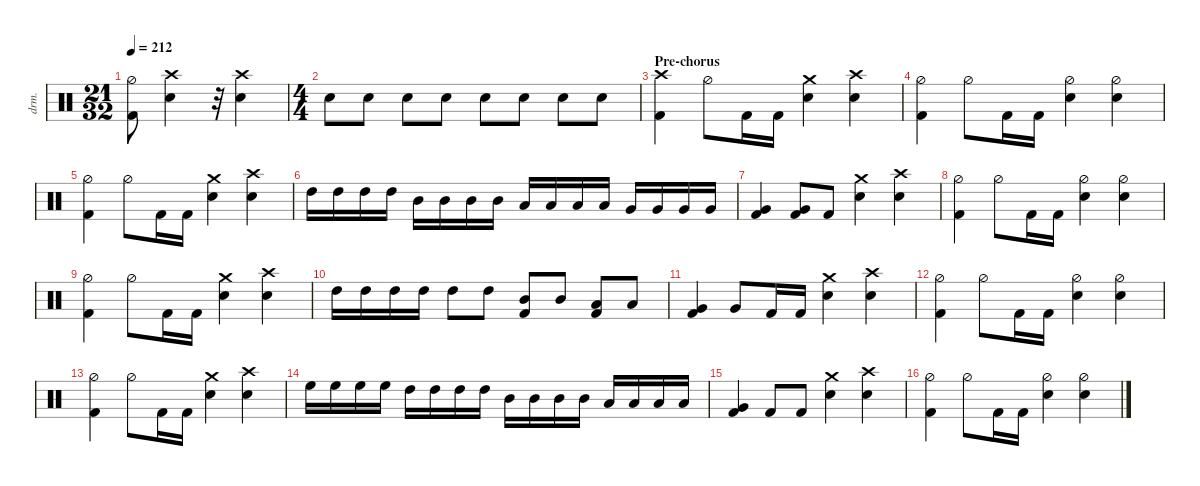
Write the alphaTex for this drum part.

\defaultSystemsLayout 4
\hideDynamics
\bracketExtendMode nobrackets
\track ("Drums" "drm.") {defaultSystemsLayout 4 multiBarRest instrument percussion}
\staff
\articulation defaults
\ts (21 32)
\beaming (8 3 2)
\tempo 212
\clef neutral
\ks c
("Kick (hit) 2" "Hi-Hat (half)").8{dy f} ("Snare (hit) 2" "Crash high (hit)").4 r.32 ("Snare (hit) 2" "Crash high (hit)").4 |
\ts (4 4)
\beaming (8 2 2 2 2)
"Snare (hit) 2".8 "Snare (hit) 2".8 "Snare (hit) 2".8 "Snare (hit) 2".8 "Snare (hit) 2".8 "Snare (hit) 2".8 "Snare (hit) 2".8 "Snare (hit) 2".8 |
\section ("" "Pre-chorus")
("Crash high (hit)" "Kick (hit) 2").4 "Hi-Hat (half)".8 "Kick (hit) 2".16 "Kick (hit) 2".16 ("Snare (hit) 2" "Crash medium (hit)").4 ("Snare (hit) 2" "Crash high (hit)").4 |
("Hi-Hat (half)" "Kick (hit) 2").4 "Hi-Hat (half)".8 "Kick (hit) 2".16 "Kick (hit) 2".16 ("Snare (hit) 2" "Hi-Hat (half)").4 ("Snare (hit) 2" "Hi-Hat (half)").4 |
("Hi-Hat (half)" "Kick (hit) 2").4 "Hi-Hat (half)".8 "Kick (hit) 2".16 "Kick (hit) 2".16 ("Snare (hit) 2" "Crash medium (hit)").4 ("Snare (hit) 2" "Crash high (hit)").4 |
"High Tom (hit)".16{dy fff} "High Tom (hit)".16 "High Tom (hit)".16 "High Tom (hit)".16 "Mid Tom (hit)".16 "Mid Tom (hit)".16 "Mid Tom (hit)".16 "Mid Tom (hit)".16 "Low Tom (hit)".16 "Low Tom (hit)".16 "Low Tom (hit)".16 "Low Tom (hit)".16 "Very Low Tom (hit)".16 "Very Low Tom (hit)".16 "Very Low Tom (hit)".16 "Very Low Tom (hit)".16 |
("Kick (hit) 2" "Very Low Tom (hit)").4{dy f} ("Kick (hit) 2" "Very Low Tom (hit)").8 "Kick (hit) 2".8 ("Snare (hit) 2" "Crash medium (hit)").4 ("Snare (hit) 2" "Crash high (hit)").4 |
("Hi-Hat (half)" "Kick (hit) 2").4 "Hi-Hat (half)".8 "Kick (hit) 2".16 "Kick (hit) 2".16 ("Snare (hit) 2" "Hi-Hat (half)").4 ("Snare (hit) 2" "Hi-Hat (half)").4 |
("Hi-Hat (half)" "Kick (hit) 2").4 "Hi-Hat (half)".8 "Kick (hit) 2".16 "Kick (hit) 2".16 ("Snare (hit) 2" "Crash medium (hit)").4 ("Snare (hit) 2" "Crash high (hit)").4 |
"High Tom (hit)".16{dy fff} "High Tom (hit)".16 "High Tom (hit)".16 "High Tom (hit)".16 "High Tom (hit)".8 "High Tom (hit)".8 ("Mid Tom (hit)" "Kick (hit) 2").8{dy f} "Mid Tom (hit)".8{dy fff} ("Low Tom (hit)" "Kick (hit) 2").8{dy f} "Low Tom (hit)".8{dy fff} |
("Kick (hit) 2" "Very Low Tom (hit)").4{dy f} "Very Low Tom (hit)".8{dy fff} "Kick (hit) 2".16{dy f} "Kick (hit) 2".16 ("Snare (hit) 2" "Crash medium (hit)").4 ("Snare (hit) 2" "Crash high (hit)").4 |
("Hi-Hat (half)" "Kick (hit) 2").4 "Hi-Hat (half)".8 "Kick (hit) 2".16 "Kick (hit) 2".16 ("Snare (hit) 2" "Hi-Hat (half)").4 ("Snare (hit) 2" "Hi-Hat (half)").4 |
("Hi-Hat (half)" "Kick (hit) 2").4 "Hi-Hat (half)".8 "Kick (hit) 2".16 "Kick (hit) 2".16 ("Snare (hit) 2" "Crash medium (hit)").4 ("Snare (hit) 2" "Crash high (hit)").4 |
"High Floor Tom (hit)".16{dy fff} "High Floor Tom (hit)".16 "High Floor Tom (hit)".16 "High Floor Tom (hit)".16 "High Tom (hit)".16 "High Tom (hit)".16 "High Tom (hit)".16 "High Tom (hit)".16 "Mid Tom (hit)".16 "Mid Tom (hit)".16 "Mid Tom (hit)".16 "Mid Tom (hit)".16 "Low Tom (hit)".16 "Low Tom (hit)".16 "Low Tom (hit)".16 "Low Tom (hit)".16 |
("Kick (hit) 2" "Very Low Tom (hit)").4{dy f} "Kick (hit) 2".8 "Kick (hit) 2".8 ("Snare (hit) 2" "Crash medium (hit)").4 ("Snare (hit) 2" "Crash high (hit)").4 |
("Hi-Hat (half)" "Kick (hit) 2").4 "Hi-Hat (half)".8 "Kick (hit) 2".16 "Kick (hit) 2".16 ("Snare (hit) 2" "Hi-Hat (half)").4 ("Snare (hit) 2" "Hi-Hat (half)").4
